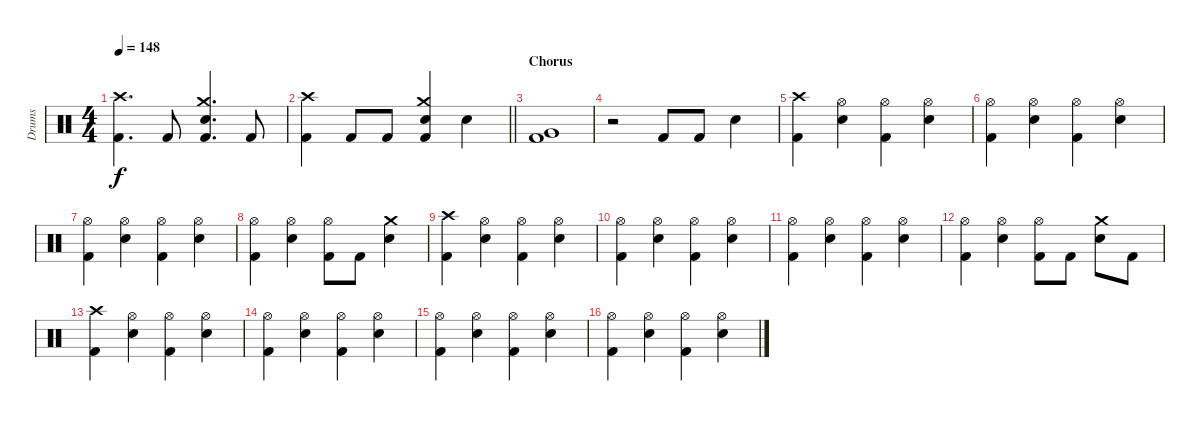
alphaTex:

\track ("Drums" "Drums") {instrument percussion}
\staff {score}
\articulation defaults
\ts (4 4)
\tempo 148
\clef neutral
\ks c
("Crash high (hit)" "Kick (hit) 2").4{d dy f} "Kick (hit) 2".8 ("Crash medium (hit)" "Snare (hit) 2" "Kick (hit) 2").4{d} "Kick (hit) 2".8 |
\barLineRight lightlight
("Crash high (hit)" "Kick (hit) 2").4 "Kick (hit) 2".8 "Kick (hit) 2".8 ("Crash medium (hit)" "Snare (hit) 2" "Kick (hit) 2").4 "Snare (hit) 2".4 |
\section ("" "Chorus")
("Very Low Tom (hit)" "Kick (hit) 2").1 |
r.2 "Kick (hit) 2".8 "Kick (hit) 2".8 "Snare (hit) 2".4 |
("Crash high (hit)" "Kick (hit) 2").4 ("Hi-Hat (open)" "Snare (hit) 2").4 ("Hi-Hat (open)" "Kick (hit) 2").4 ("Hi-Hat (open)" "Snare (hit) 2").4 |
("Hi-Hat (open)" "Kick (hit) 2").4 ("Hi-Hat (open)" "Snare (hit) 2").4 ("Hi-Hat (open)" "Kick (hit) 2").4 ("Hi-Hat (open)" "Snare (hit) 2").4 |
("Hi-Hat (open)" "Kick (hit) 2").4 ("Hi-Hat (open)" "Snare (hit) 2").4 ("Hi-Hat (open)" "Kick (hit) 2").4 ("Hi-Hat (open)" "Snare (hit) 2").4 |
("Hi-Hat (open)" "Kick (hit) 2").4 ("Hi-Hat (open)" "Snare (hit) 2").4 ("Hi-Hat (open)" "Kick (hit) 2").8 "Kick (hit) 2".8 ("Crash medium (hit)" "Snare (hit) 2").4 |
("Crash high (hit)" "Kick (hit) 2").4 ("Hi-Hat (open)" "Snare (hit) 2").4 ("Hi-Hat (open)" "Kick (hit) 2").4 ("Hi-Hat (open)" "Snare (hit) 2").4 |
("Hi-Hat (open)" "Kick (hit) 2").4 ("Hi-Hat (open)" "Snare (hit) 2").4 ("Hi-Hat (open)" "Kick (hit) 2").4 ("Hi-Hat (open)" "Snare (hit) 2").4 |
("Hi-Hat (open)" "Kick (hit) 2").4 ("Hi-Hat (open)" "Snare (hit) 2").4 ("Hi-Hat (open)" "Kick (hit) 2").4 ("Hi-Hat (open)" "Snare (hit) 2").4 |
("Hi-Hat (open)" "Kick (hit) 2").4 ("Hi-Hat (open)" "Snare (hit) 2").4 ("Hi-Hat (open)" "Kick (hit) 2").8 "Kick (hit) 2".8 ("Crash medium (hit)" "Snare (hit) 2").8 "Kick (hit) 2".8 |
("Crash high (hit)" "Kick (hit) 2").4 ("Hi-Hat (open)" "Snare (hit) 2").4 ("Hi-Hat (open)" "Kick (hit) 2").4 ("Hi-Hat (open)" "Snare (hit) 2").4 |
("Hi-Hat (open)" "Kick (hit) 2").4 ("Hi-Hat (open)" "Snare (hit) 2").4 ("Hi-Hat (open)" "Kick (hit) 2").4 ("Hi-Hat (open)" "Snare (hit) 2").4 |
("Hi-Hat (open)" "Kick (hit) 2").4 ("Hi-Hat (open)" "Snare (hit) 2").4 ("Hi-Hat (open)" "Kick (hit) 2").4 ("Hi-Hat (open)" "Snare (hit) 2").4 |
("Hi-Hat (open)" "Kick (hit) 2").4 ("Hi-Hat (open)" "Snare (hit) 2").4 ("Hi-Hat (open)" "Kick (hit) 2").4 ("Hi-Hat (open)" "Snare (hit) 2").4
